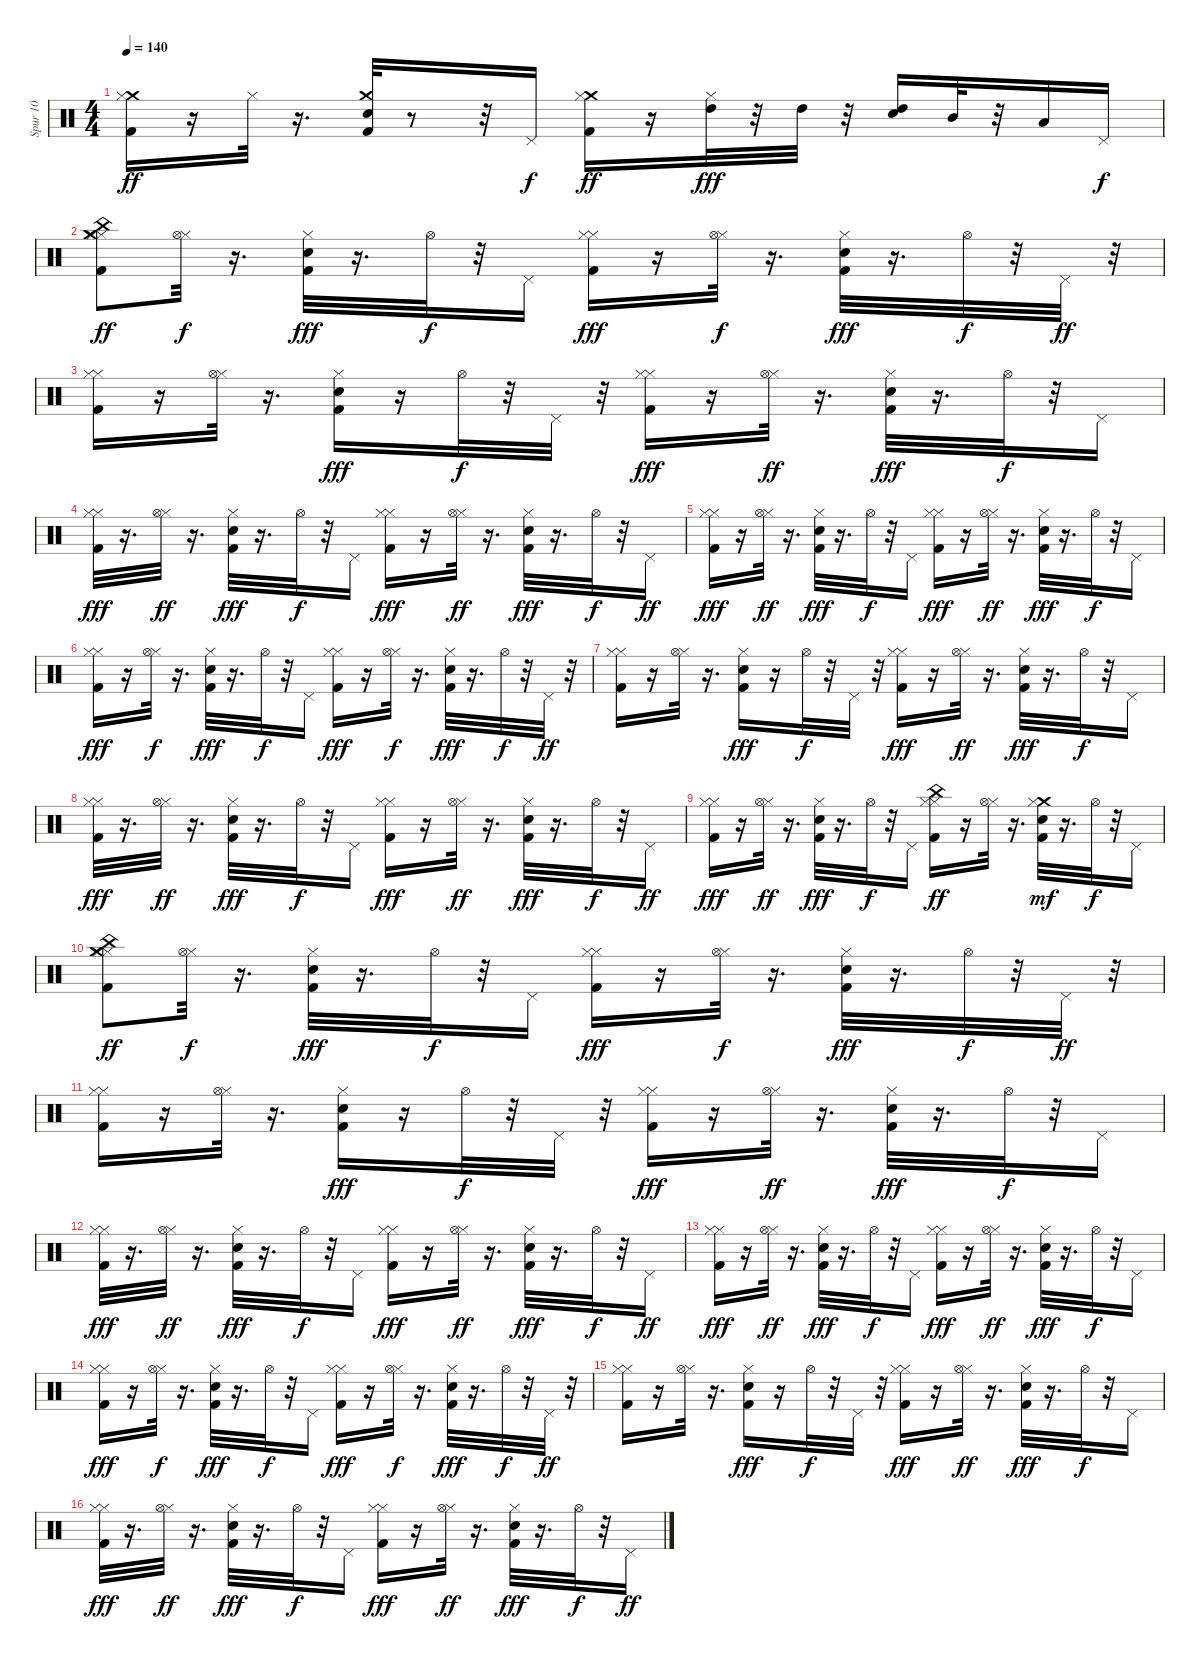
\track ("Spur 10" "Spur 10") {instrument percussion}
\staff {score}
\articulation defaults
\ts (4 4)
\tempo 140
\clef neutral
\ks c
("Kick (hit) 2" "Crash medium (hit)" "Hi-Hat (closed)").16{dy ff} r.16 "Hi-Hat (closed)".32 r.16{d} ("Kick (hit) 2" "Crash medium (hit)" "Hand Clap (hit)").32 r.8 r.32 "Pedal Hi-Hat (hit)".16{dy f} ("Kick (hit) 2" "Crash medium (hit)" "Hi-Hat (closed)").16{dy ff} r.16 ("Hi-Hat (closed)" "High Tom (hit)").32{dy fff} r.32 "High Tom (hit)".32 r.32 ("High Tom (hit)" "Hand Clap (hit)").16 "Mid Tom (hit)".32 r.32 "Low Tom (hit)".16 "Pedal Hi-Hat (hit)".16{dy f} |
("Kick (hit) 2" "Hi-Hat (closed)" "China (hit)" "Crash medium (hit)" "Hi-Hat (closed)").8{dy ff} ("Hi-Hat (closed)" "Hi-Hat (open)").32{dy f} r.16{d} ("Kick (hit) 2" "Hi-Hat (closed)" "Hand Clap (hit)").32{dy fff} r.16{d} "Hi-Hat (open)".32{dy f} r.32 "Pedal Hi-Hat (hit)".16 ("Kick (hit) 2" "Hi-Hat (closed)" "Hi-Hat (closed)").16{dy fff} r.16 ("Hi-Hat (closed)" "Hi-Hat (open)").32{dy f} r.16{d} ("Kick (hit) 2" "Hi-Hat (closed)" "Hand Clap (hit)").32{dy fff} r.16{d} "Hi-Hat (open)".32{dy f} r.32 "Pedal Hi-Hat (hit)".32{dy ff} r.32 |
("Kick (hit) 2" "Hi-Hat (closed)" "Hi-Hat (closed)").16 r.16 ("Hi-Hat (closed)" "Hi-Hat (open)").32 r.16{d} ("Kick (hit) 2" "Hi-Hat (closed)" "Hand Clap (hit)").16{dy fff} r.16 "Hi-Hat (open)".32{dy f} r.32 "Pedal Hi-Hat (hit)".32 r.32 ("Kick (hit) 2" "Hi-Hat (closed)" "Hi-Hat (closed)").16{dy fff} r.16 ("Hi-Hat (closed)" "Hi-Hat (open)").32{dy ff} r.16{d} ("Kick (hit) 2" "Hi-Hat (closed)" "Hand Clap (hit)").32{dy fff} r.16{d} "Hi-Hat (open)".32{dy f} r.32 "Pedal Hi-Hat (hit)".16 |
("Kick (hit) 2" "Hi-Hat (closed)" "Hi-Hat (closed)").32{dy fff} r.16{d} ("Hi-Hat (closed)" "Hi-Hat (open)").32{dy ff} r.16{d} ("Kick (hit) 2" "Hi-Hat (closed)" "Hand Clap (hit)").32{dy fff} r.16{d} "Hi-Hat (open)".32{dy f} r.32 "Pedal Hi-Hat (hit)".16 ("Kick (hit) 2" "Hi-Hat (closed)" "Hi-Hat (closed)").16{dy fff} r.16 ("Hi-Hat (closed)" "Hi-Hat (open)").32{dy ff} r.16{d} ("Kick (hit) 2" "Hi-Hat (closed)" "Hand Clap (hit)").32{dy fff} r.16{d} "Hi-Hat (open)".32{dy f} r.32 "Pedal Hi-Hat (hit)".16{dy ff} |
("Kick (hit) 2" "Hi-Hat (closed)" "Hi-Hat (closed)").16{dy fff} r.16 ("Hi-Hat (closed)" "Hi-Hat (open)").32{dy ff} r.16{d} ("Kick (hit) 2" "Hi-Hat (closed)" "Hand Clap (hit)").32{dy fff} r.16{d} "Hi-Hat (open)".32{dy f} r.32 "Pedal Hi-Hat (hit)".16 ("Kick (hit) 2" "Hi-Hat (closed)" "Hi-Hat (closed)").16{dy fff} r.16 ("Hi-Hat (closed)" "Hi-Hat (open)").32{dy ff} r.16{d} ("Kick (hit) 2" "Hi-Hat (closed)" "Hand Clap (hit)").32{dy fff} r.16{d} "Hi-Hat (open)".32{dy f} r.32 "Pedal Hi-Hat (hit)".16 |
("Kick (hit) 2" "Hi-Hat (closed)" "Hi-Hat (closed)").16{dy fff} r.16 ("Hi-Hat (closed)" "Hi-Hat (open)").32{dy f} r.16{d} ("Kick (hit) 2" "Hi-Hat (closed)" "Hand Clap (hit)").32{dy fff} r.16{d} "Hi-Hat (open)".32{dy f} r.32 "Pedal Hi-Hat (hit)".16 ("Kick (hit) 2" "Hi-Hat (closed)" "Hi-Hat (closed)").16{dy fff} r.16 ("Hi-Hat (closed)" "Hi-Hat (open)").32{dy f} r.16{d} ("Kick (hit) 2" "Hi-Hat (closed)" "Hand Clap (hit)").32{dy fff} r.16{d} "Hi-Hat (open)".32{dy f} r.32 "Pedal Hi-Hat (hit)".32{dy ff} r.32 |
("Kick (hit) 2" "Hi-Hat (closed)" "Hi-Hat (closed)").16 r.16 ("Hi-Hat (closed)" "Hi-Hat (open)").32 r.16{d} ("Kick (hit) 2" "Hi-Hat (closed)" "Hand Clap (hit)").16{dy fff} r.16 "Hi-Hat (open)".32{dy f} r.32 "Pedal Hi-Hat (hit)".32 r.32 ("Kick (hit) 2" "Hi-Hat (closed)" "Hi-Hat (closed)").16{dy fff} r.16 ("Hi-Hat (closed)" "Hi-Hat (open)").32{dy ff} r.16{d} ("Kick (hit) 2" "Hi-Hat (closed)" "Hand Clap (hit)").32{dy fff} r.16{d} "Hi-Hat (open)".32{dy f} r.32 "Pedal Hi-Hat (hit)".16 |
("Kick (hit) 2" "Hi-Hat (closed)" "Hi-Hat (closed)").32{dy fff} r.16{d} ("Hi-Hat (closed)" "Hi-Hat (open)").32{dy ff} r.16{d} ("Kick (hit) 2" "Hi-Hat (closed)" "Hand Clap (hit)").32{dy fff} r.16{d} "Hi-Hat (open)".32{dy f} r.32 "Pedal Hi-Hat (hit)".16 ("Kick (hit) 2" "Hi-Hat (closed)" "Hi-Hat (closed)").16{dy fff} r.16 ("Hi-Hat (closed)" "Hi-Hat (open)").32{dy ff} r.16{d} ("Kick (hit) 2" "Hi-Hat (closed)" "Hand Clap (hit)").32{dy fff} r.16{d} "Hi-Hat (open)".32{dy f} r.32 "Pedal Hi-Hat (hit)".16{dy ff} |
("Kick (hit) 2" "Hi-Hat (closed)" "Hi-Hat (closed)").16{dy fff} r.16 ("Hi-Hat (closed)" "Hi-Hat (open)").32{dy ff} r.16{d} ("Kick (hit) 2" "Hi-Hat (closed)" "Hand Clap (hit)").32{dy fff} r.16{d} "Hi-Hat (open)".32{dy f} r.32 "Pedal Hi-Hat (hit)".16 ("Kick (hit) 2" "Hi-Hat (closed)" "China (hit)" "Hi-Hat (closed)").16{dy ff} r.16 ("Hi-Hat (closed)" "Hi-Hat (open)").32 r.16{d} ("Kick (hit) 2" "Crash medium (hit)" "Hi-Hat (closed)" "Hand Clap (hit)").32{dy mf} r.16{d} "Hi-Hat (open)".32{dy f} r.32 "Pedal Hi-Hat (hit)".16 |
("Kick (hit) 2" "Hi-Hat (closed)" "Crash medium (hit)" "China (hit)" "Hi-Hat (closed)").8{dy ff} ("Hi-Hat (closed)" "Hi-Hat (open)").32{dy f} r.16{d} ("Kick (hit) 2" "Hi-Hat (closed)" "Hand Clap (hit)").32{dy fff} r.16{d} "Hi-Hat (open)".32{dy f} r.32 "Pedal Hi-Hat (hit)".16 ("Kick (hit) 2" "Hi-Hat (closed)" "Hi-Hat (closed)").16{dy fff} r.16 ("Hi-Hat (closed)" "Hi-Hat (open)").32{dy f} r.16{d} ("Kick (hit) 2" "Hi-Hat (closed)" "Hand Clap (hit)").32{dy fff} r.16{d} "Hi-Hat (open)".32{dy f} r.32 "Pedal Hi-Hat (hit)".32{dy ff} r.32 |
("Kick (hit) 2" "Hi-Hat (closed)" "Hi-Hat (closed)").16 r.16 ("Hi-Hat (closed)" "Hi-Hat (open)").32 r.16{d} ("Kick (hit) 2" "Hi-Hat (closed)" "Hand Clap (hit)").16{dy fff} r.16 "Hi-Hat (open)".32{dy f} r.32 "Pedal Hi-Hat (hit)".32 r.32 ("Kick (hit) 2" "Hi-Hat (closed)" "Hi-Hat (closed)").16{dy fff} r.16 ("Hi-Hat (closed)" "Hi-Hat (open)").32{dy ff} r.16{d} ("Kick (hit) 2" "Hi-Hat (closed)" "Hand Clap (hit)").32{dy fff} r.16{d} "Hi-Hat (open)".32{dy f} r.32 "Pedal Hi-Hat (hit)".16 |
("Kick (hit) 2" "Hi-Hat (closed)" "Hi-Hat (closed)").32{dy fff} r.16{d} ("Hi-Hat (closed)" "Hi-Hat (open)").32{dy ff} r.16{d} ("Kick (hit) 2" "Hi-Hat (closed)" "Hand Clap (hit)").32{dy fff} r.16{d} "Hi-Hat (open)".32{dy f} r.32 "Pedal Hi-Hat (hit)".16 ("Kick (hit) 2" "Hi-Hat (closed)" "Hi-Hat (closed)").16{dy fff} r.16 ("Hi-Hat (closed)" "Hi-Hat (open)").32{dy ff} r.16{d} ("Kick (hit) 2" "Hi-Hat (closed)" "Hand Clap (hit)").32{dy fff} r.16{d} "Hi-Hat (open)".32{dy f} r.32 "Pedal Hi-Hat (hit)".16{dy ff} |
("Kick (hit) 2" "Hi-Hat (closed)" "Hi-Hat (closed)").16{dy fff} r.16 ("Hi-Hat (closed)" "Hi-Hat (open)").32{dy ff} r.16{d} ("Kick (hit) 2" "Hi-Hat (closed)" "Hand Clap (hit)").32{dy fff} r.16{d} "Hi-Hat (open)".32{dy f} r.32 "Pedal Hi-Hat (hit)".16 ("Kick (hit) 2" "Hi-Hat (closed)" "Hi-Hat (closed)").16{dy fff} r.16 ("Hi-Hat (closed)" "Hi-Hat (open)").32{dy ff} r.16{d} ("Kick (hit) 2" "Hi-Hat (closed)" "Hand Clap (hit)").32{dy fff} r.16{d} "Hi-Hat (open)".32{dy f} r.32 "Pedal Hi-Hat (hit)".16 |
("Kick (hit) 2" "Hi-Hat (closed)" "Hi-Hat (closed)").16{dy fff} r.16 ("Hi-Hat (closed)" "Hi-Hat (open)").32{dy f} r.16{d} ("Kick (hit) 2" "Hi-Hat (closed)" "Hand Clap (hit)").32{dy fff} r.16{d} "Hi-Hat (open)".32{dy f} r.32 "Pedal Hi-Hat (hit)".16 ("Kick (hit) 2" "Hi-Hat (closed)" "Hi-Hat (closed)").16{dy fff} r.16 ("Hi-Hat (closed)" "Hi-Hat (open)").32{dy f} r.16{d} ("Kick (hit) 2" "Hi-Hat (closed)" "Hand Clap (hit)").32{dy fff} r.16{d} "Hi-Hat (open)".32{dy f} r.32 "Pedal Hi-Hat (hit)".32{dy ff} r.32 |
("Kick (hit) 2" "Hi-Hat (closed)" "Hi-Hat (closed)").16 r.16 ("Hi-Hat (closed)" "Hi-Hat (open)").32 r.16{d} ("Kick (hit) 2" "Hi-Hat (closed)" "Hand Clap (hit)").16{dy fff} r.16 "Hi-Hat (open)".32{dy f} r.32 "Pedal Hi-Hat (hit)".32 r.32 ("Kick (hit) 2" "Hi-Hat (closed)" "Hi-Hat (closed)").16{dy fff} r.16 ("Hi-Hat (closed)" "Hi-Hat (open)").32{dy ff} r.16{d} ("Kick (hit) 2" "Hi-Hat (closed)" "Hand Clap (hit)").32{dy fff} r.16{d} "Hi-Hat (open)".32{dy f} r.32 "Pedal Hi-Hat (hit)".16 |
("Kick (hit) 2" "Hi-Hat (closed)" "Hi-Hat (closed)").32{dy fff} r.16{d} ("Hi-Hat (closed)" "Hi-Hat (open)").32{dy ff} r.16{d} ("Kick (hit) 2" "Hi-Hat (closed)" "Hand Clap (hit)").32{dy fff} r.16{d} "Hi-Hat (open)".32{dy f} r.32 "Pedal Hi-Hat (hit)".16 ("Kick (hit) 2" "Hi-Hat (closed)" "Hi-Hat (closed)").16{dy fff} r.16 ("Hi-Hat (closed)" "Hi-Hat (open)").32{dy ff} r.16{d} ("Kick (hit) 2" "Hi-Hat (closed)" "Hand Clap (hit)").32{dy fff} r.16{d} "Hi-Hat (open)".32{dy f} r.32 "Pedal Hi-Hat (hit)".16{dy ff}
